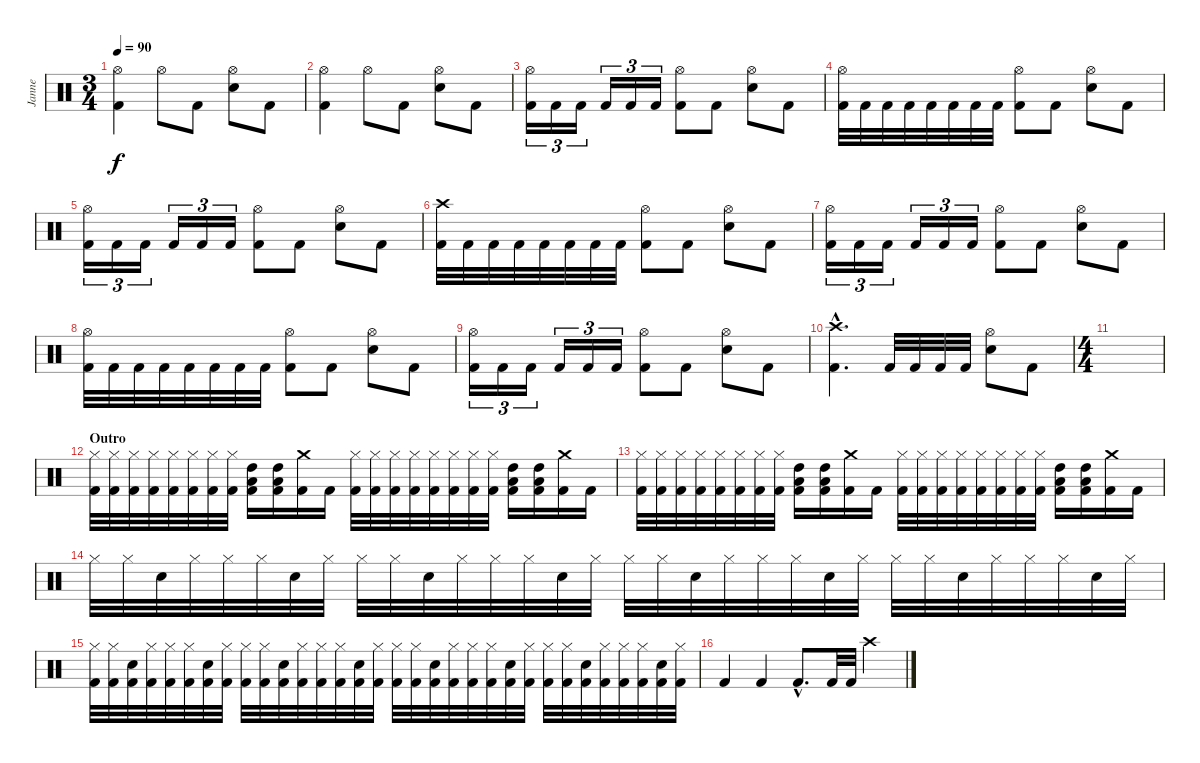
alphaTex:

\track ("Janne" "Janne") {instrument percussion}
\staff {score}
\articulation defaults
\ts (3 4)
\tempo 90
\clef neutral
\ks c
("Hi-Hat (open)" "Kick (hit) 2").4{dy f} "Hi-Hat (open)".8 "Kick (hit) 2".8 ("Hi-Hat (open)" "Electric Snare (hit)").8 "Kick (hit) 2".8 |
("Hi-Hat (open)" "Kick (hit) 2").4 "Hi-Hat (open)".8 "Kick (hit) 2".8 ("Hi-Hat (open)" "Electric Snare (hit)").8 "Kick (hit) 2".8 |
("Hi-Hat (open)" "Kick (hit) 2").16{tu (3 2)} "Kick (hit) 2".16{tu (3 2)} "Kick (hit) 2".16{tu (3 2)} "Kick (hit) 2".16{tu (3 2)} "Kick (hit) 2".16{tu (3 2)} "Kick (hit) 2".16{tu (3 2)} ("Hi-Hat (open)" "Kick (hit) 2").8 "Kick (hit) 2".8 ("Hi-Hat (open)" "Electric Snare (hit)").8 "Kick (hit) 2".8 |
("Hi-Hat (open)" "Kick (hit) 2").32 "Kick (hit) 2".32 "Kick (hit) 2".32 "Kick (hit) 2".32 "Kick (hit) 2".32 "Kick (hit) 2".32 "Kick (hit) 2".32 "Kick (hit) 2".32 ("Hi-Hat (open)" "Kick (hit) 2").8 "Kick (hit) 2".8 ("Hi-Hat (open)" "Electric Snare (hit)").8 "Kick (hit) 2".8 |
("Hi-Hat (open)" "Kick (hit) 2").16{tu (3 2)} "Kick (hit) 2".16{tu (3 2)} "Kick (hit) 2".16{tu (3 2)} "Kick (hit) 2".16{tu (3 2)} "Kick (hit) 2".16{tu (3 2)} "Kick (hit) 2".16{tu (3 2)} ("Hi-Hat (open)" "Kick (hit) 2").8 "Kick (hit) 2".8 ("Hi-Hat (open)" "Electric Snare (hit)").8 "Kick (hit) 2".8 |
("Crash high (hit)" "Kick (hit) 2").32 "Kick (hit) 2".32 "Kick (hit) 2".32 "Kick (hit) 2".32 "Kick (hit) 2".32 "Kick (hit) 2".32 "Kick (hit) 2".32 "Kick (hit) 2".32 ("Hi-Hat (open)" "Kick (hit) 2").8 "Kick (hit) 2".8 ("Hi-Hat (open)" "Electric Snare (hit)").8 "Kick (hit) 2".8 |
("Hi-Hat (open)" "Kick (hit) 2").16{tu (3 2)} "Kick (hit) 2".16{tu (3 2)} "Kick (hit) 2".16{tu (3 2)} "Kick (hit) 2".16{tu (3 2)} "Kick (hit) 2".16{tu (3 2)} "Kick (hit) 2".16{tu (3 2)} ("Hi-Hat (open)" "Kick (hit) 2").8 "Kick (hit) 2".8 ("Hi-Hat (open)" "Electric Snare (hit)").8 "Kick (hit) 2".8 |
("Hi-Hat (open)" "Kick (hit) 2").32 "Kick (hit) 2".32 "Kick (hit) 2".32 "Kick (hit) 2".32 "Kick (hit) 2".32 "Kick (hit) 2".32 "Kick (hit) 2".32 "Kick (hit) 2".32 ("Hi-Hat (open)" "Kick (hit) 2").8 "Kick (hit) 2".8 ("Hi-Hat (open)" "Electric Snare (hit)").8 "Kick (hit) 2".8 |
("Hi-Hat (open)" "Kick (hit) 2").16{tu (3 2)} "Kick (hit) 2".16{tu (3 2)} "Kick (hit) 2".16{tu (3 2)} "Kick (hit) 2".16{tu (3 2)} "Kick (hit) 2".16{tu (3 2)} "Kick (hit) 2".16{tu (3 2)} ("Hi-Hat (open)" "Kick (hit) 2").8 "Kick (hit) 2".8 ("Hi-Hat (open)" "Electric Snare (hit)").8 "Kick (hit) 2".8 |
("Crash high (hit)"{hac} "Kick (hit) 2"{hac}).4{d} "Kick (hit) 2".32 "Kick (hit) 2".32 "Kick (hit) 2".32 "Kick (hit) 2".32 ("Hi-Hat (open)" "Electric Snare (hit)").8 "Kick (hit) 2".8 |
\ts (4 4)
|
\section ("" "Outro")
("Hi-Hat (closed)" "Kick (hit) 2").32 ("Hi-Hat (closed)" "Kick (hit) 2").32 ("Hi-Hat (closed)" "Kick (hit) 2").32 ("Hi-Hat (closed)" "Kick (hit) 2").32 ("Hi-Hat (closed)" "Kick (hit) 2").32 ("Hi-Hat (closed)" "Kick (hit) 2").32 ("Hi-Hat (closed)" "Kick (hit) 2").32 ("Hi-Hat (closed)" "Kick (hit) 2").32 ("High Tom (hit)" "Low Tom (hit)" "Kick (hit) 2").16 ("High Tom (hit)" "Low Tom (hit)" "Kick (hit) 2").16 ("Crash medium (hit)" "Kick (hit) 2").16 "Kick (hit) 2".16 ("Hi-Hat (closed)" "Kick (hit) 2").32 ("Hi-Hat (closed)" "Kick (hit) 2").32 ("Hi-Hat (closed)" "Kick (hit) 2").32 ("Hi-Hat (closed)" "Kick (hit) 2").32 ("Hi-Hat (closed)" "Kick (hit) 2").32 ("Hi-Hat (closed)" "Kick (hit) 2").32 ("Hi-Hat (closed)" "Kick (hit) 2").32 ("Hi-Hat (closed)" "Kick (hit) 2").32 ("High Tom (hit)" "Low Tom (hit)" "Kick (hit) 2").16 ("High Tom (hit)" "Low Tom (hit)" "Kick (hit) 2").16 ("Crash medium (hit)" "Kick (hit) 2").16 "Kick (hit) 2".16 |
("Hi-Hat (closed)" "Kick (hit) 2").32 ("Hi-Hat (closed)" "Kick (hit) 2").32 ("Hi-Hat (closed)" "Kick (hit) 2").32 ("Hi-Hat (closed)" "Kick (hit) 2").32 ("Hi-Hat (closed)" "Kick (hit) 2").32 ("Hi-Hat (closed)" "Kick (hit) 2").32 ("Hi-Hat (closed)" "Kick (hit) 2").32 ("Hi-Hat (closed)" "Kick (hit) 2").32 ("High Tom (hit)" "Low Tom (hit)" "Kick (hit) 2").16 ("High Tom (hit)" "Low Tom (hit)" "Kick (hit) 2").16 ("Crash medium (hit)" "Kick (hit) 2").16 "Kick (hit) 2".16 ("Hi-Hat (closed)" "Kick (hit) 2").32 ("Hi-Hat (closed)" "Kick (hit) 2").32 ("Hi-Hat (closed)" "Kick (hit) 2").32 ("Hi-Hat (closed)" "Kick (hit) 2").32 ("Hi-Hat (closed)" "Kick (hit) 2").32 ("Hi-Hat (closed)" "Kick (hit) 2").32 ("Hi-Hat (closed)" "Kick (hit) 2").32 ("Hi-Hat (closed)" "Kick (hit) 2").32 ("High Tom (hit)" "Low Tom (hit)" "Kick (hit) 2").16 ("High Tom (hit)" "Low Tom (hit)" "Kick (hit) 2").16 ("Crash medium (hit)" "Kick (hit) 2").16 "Kick (hit) 2".16 |
"Hi-Hat (closed)".32 "Hi-Hat (closed)".32 "Electric Snare (hit)".32 "Hi-Hat (closed)".32 "Hi-Hat (closed)".32 "Hi-Hat (closed)".32 "Electric Snare (hit)".32 "Hi-Hat (closed)".32 "Hi-Hat (closed)".32 "Hi-Hat (closed)".32 "Electric Snare (hit)".32 "Hi-Hat (closed)".32 "Hi-Hat (closed)".32 "Hi-Hat (closed)".32 "Electric Snare (hit)".32 "Hi-Hat (closed)".32 "Hi-Hat (closed)".32 "Hi-Hat (closed)".32 "Electric Snare (hit)".32 "Hi-Hat (closed)".32 "Hi-Hat (closed)".32 "Hi-Hat (closed)".32 "Electric Snare (hit)".32 "Hi-Hat (closed)".32 "Hi-Hat (closed)".32 "Hi-Hat (closed)".32 "Electric Snare (hit)".32 "Hi-Hat (closed)".32 "Hi-Hat (closed)".32 "Hi-Hat (closed)".32 "Electric Snare (hit)".32 "Hi-Hat (closed)".32 |
("Hi-Hat (closed)" "Kick (hit) 2").32 ("Hi-Hat (closed)" "Kick (hit) 2").32 ("Electric Snare (hit)" "Kick (hit) 2").32 ("Hi-Hat (closed)" "Kick (hit) 2").32 ("Hi-Hat (closed)" "Kick (hit) 2").32 ("Hi-Hat (closed)" "Kick (hit) 2").32 ("Electric Snare (hit)" "Kick (hit) 2").32 ("Hi-Hat (closed)" "Kick (hit) 2").32 ("Hi-Hat (closed)" "Kick (hit) 2").32 ("Hi-Hat (closed)" "Kick (hit) 2").32 ("Electric Snare (hit)" "Kick (hit) 2").32 ("Hi-Hat (closed)" "Kick (hit) 2").32 ("Hi-Hat (closed)" "Kick (hit) 2").32 ("Hi-Hat (closed)" "Kick (hit) 2").32 ("Electric Snare (hit)" "Kick (hit) 2").32 ("Hi-Hat (closed)" "Kick (hit) 2").32 ("Hi-Hat (closed)" "Kick (hit) 2").32 ("Hi-Hat (closed)" "Kick (hit) 2").32 ("Electric Snare (hit)" "Kick (hit) 2").32 ("Hi-Hat (closed)" "Kick (hit) 2").32 ("Hi-Hat (closed)" "Kick (hit) 2").32 ("Hi-Hat (closed)" "Kick (hit) 2").32 ("Electric Snare (hit)" "Kick (hit) 2").32 ("Hi-Hat (closed)" "Kick (hit) 2").32 ("Hi-Hat (closed)" "Kick (hit) 2").32 ("Hi-Hat (closed)" "Kick (hit) 2").32 ("Electric Snare (hit)" "Kick (hit) 2").32 ("Hi-Hat (closed)" "Kick (hit) 2").32 ("Hi-Hat (closed)" "Kick (hit) 2").32 ("Hi-Hat (closed)" "Kick (hit) 2").32 ("Electric Snare (hit)" "Kick (hit) 2").32 ("Hi-Hat (closed)" "Kick (hit) 2").32 |
"Kick (hit) 2".4 "Kick (hit) 2".4 "Kick (hit) 2"{hac}.8{d} "Kick (hit) 2".32 "Kick (hit) 2".32 "Crash high (hit)".4
